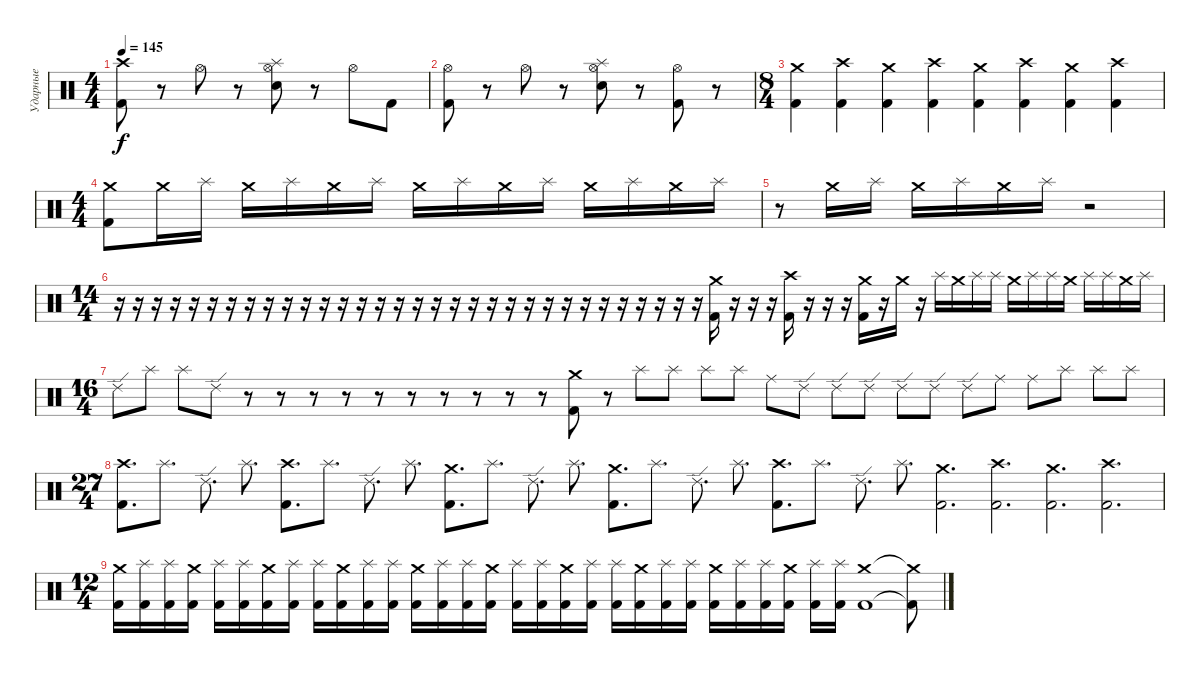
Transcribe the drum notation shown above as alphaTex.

\track ("Ударные" "Ударные") {instrument percussion}
\staff {score}
\articulation defaults
\ts (4 4)
\tempo 145
\clef neutral
\ks c
("Crash high (hit)" "Kick (hit) 2").8{dy f} r.8 "Hi-Hat (open)".8 r.8 ("Splash (hit)" "Hi-Hat (open)" "Snare (hit) 2").8 r.8 "Hi-Hat (open)".8 "Kick (hit) 2".8 |
("Hi-Hat (open)" "Kick (hit) 2").8 r.8 "Hi-Hat (open)".8 r.8 ("Splash (hit)" "Hi-Hat (open)" "Snare (hit) 2").8 r.8 ("Hi-Hat (open)" "Kick (hit) 2").8 r.8 |
\ts (8 4)
("Crash medium (hit)" "Kick (hit) 2").4 ("Crash high (hit)" "Kick (hit) 2").4 ("Crash medium (hit)" "Kick (hit) 2").4 ("Crash high (hit)" "Kick (hit) 2").4 ("Crash medium (hit)" "Kick (hit) 2").4 ("Crash high (hit)" "Kick (hit) 2").4 ("Crash medium (hit)" "Kick (hit) 2").4 ("Crash high (hit)" "Kick (hit) 2").4 |
\ts (4 4)
("Crash medium (hit)" "Kick (hit) 2").8 "Crash medium (hit)".16 "Splash (hit)".16 "Crash medium (hit)".16 "Splash (hit)".16 "Crash medium (hit)".16 "Splash (hit)".16 "Crash medium (hit)".16 "Splash (hit)".16 "Crash medium (hit)".16 "Splash (hit)".16 "Crash medium (hit)".16 "Splash (hit)".16 "Crash medium (hit)".16 "Splash (hit)".16 |
r.8 "Crash medium (hit)".16 "Splash (hit)".16 "Crash medium (hit)".16 "Splash (hit)".16 "Crash medium (hit)".16 "Splash (hit)".16 r.2 |
\ts (14 4)
r.16 r.16 r.16 r.16 r.16 r.16 r.16 r.16 r.16 r.16 r.16 r.16 r.16 r.16 r.16 r.16 r.16 r.16 r.16 r.16 r.16 r.16 r.16 r.16 r.16 r.16 r.16 r.16 r.16 r.16 r.16 r.16 ("Crash medium (hit)" "Kick (hit) 2").16 r.16 r.16 r.16 ("Crash high (hit)" "Kick (hit) 2").16 r.16 r.16 r.16 ("Crash medium (hit)" "Kick (hit) 2").16 r.16 "Crash medium (hit)".16 r.16 "Splash (hit)".16 "Crash medium (hit)".16 "Splash (hit)".16 "Splash (hit)".16 "Crash medium (hit)".16 "Splash (hit)".16 "Splash (hit)".16 "Crash medium (hit)".16 "Splash (hit)".16 "Splash (hit)".16 "Crash medium (hit)".16 "Splash (hit)".16 |
\ts (16 4)
"Ride (edge) 2".8 "Splash (hit)".8 "Splash (hit)".8 "Ride (edge) 2".8 r.8 r.8 r.8 r.8 r.8 r.8 r.8 r.8 r.8 r.8 ("Crash medium (hit)" "Kick (hit) 2").8 r.8 "Splash (hit)".8 "Splash (hit)".8 "Splash (hit)".8 "Splash (hit)".8 "Ride (middle)".8 "Ride (edge) 2".8 "Ride (edge) 2".8 "Ride (edge) 2".8 "Ride (edge) 2".8 "Ride (edge) 2".8 "Ride (edge) 2".8 "Ride (middle)".8 "Ride (middle)".8 "Splash (hit)".8 "Splash (hit)".8 "Splash (hit)".8 |
\ts (27 4)
("Crash high (hit)" "Kick (hit) 2").8{d} "Splash (hit)".8{d} "Ride (edge) 2".8{d} "Splash (hit)".8{d} ("Crash high (hit)" "Kick (hit) 2").8{d} "Splash (hit)".8{d} "Ride (edge) 2".8{d} "Splash (hit)".8{d} ("Crash medium (hit)" "Kick (hit) 2").8{d} "Splash (hit)".8{d} "Ride (edge) 2".8{d} "Splash (hit)".8{d} ("Crash medium (hit)" "Kick (hit) 2").8{d} "Splash (hit)".8{d} "Ride (edge) 2".8{d} "Splash (hit)".8{d} ("Crash high (hit)" "Kick (hit) 2").8{d} "Splash (hit)".8{d} "Ride (edge) 2".8{d} "Splash (hit)".8{d} ("Crash medium (hit)" "Kick (hit) 2").2{d} ("Crash high (hit)" "Kick (hit) 2").2{d} ("Crash medium (hit)" "Kick (hit) 2").2{d} ("Crash high (hit)" "Kick (hit) 2").2{d} |
\ts (12 4)
("Crash medium (hit)" "Kick (hit) 2").16 ("Splash (hit)" "Kick (hit) 2").16 ("Splash (hit)" "Kick (hit) 2").16 ("Crash medium (hit)" "Kick (hit) 2").16 ("Splash (hit)" "Kick (hit) 2").16 ("Splash (hit)" "Kick (hit) 2").16 ("Crash medium (hit)" "Kick (hit) 2").16 ("Splash (hit)" "Kick (hit) 2").16 ("Splash (hit)" "Kick (hit) 2").16 ("Crash medium (hit)" "Kick (hit) 2").16 ("Splash (hit)" "Kick (hit) 2").16 ("Splash (hit)" "Kick (hit) 2").16 ("Crash medium (hit)" "Kick (hit) 2").16 ("Splash (hit)" "Kick (hit) 2").16 ("Splash (hit)" "Kick (hit) 2").16 ("Crash medium (hit)" "Kick (hit) 2").16 ("Splash (hit)" "Kick (hit) 2").16 ("Splash (hit)" "Kick (hit) 2").16 ("Crash medium (hit)" "Kick (hit) 2").16 ("Splash (hit)" "Kick (hit) 2").16 ("Splash (hit)" "Kick (hit) 2").16 ("Crash medium (hit)" "Kick (hit) 2").16 ("Splash (hit)" "Kick (hit) 2").16 ("Splash (hit)" "Kick (hit) 2").16 ("Crash medium (hit)" "Kick (hit) 2").16 ("Splash (hit)" "Kick (hit) 2").16 ("Splash (hit)" "Kick (hit) 2").16 ("Crash medium (hit)" "Kick (hit) 2").16 ("Splash (hit)" "Kick (hit) 2").16 ("Splash (hit)" "Kick (hit) 2").16 ("Crash medium (hit)" "Kick (hit) 2").1 ("Crash medium (hit)"{t} "Kick (hit) 2"{t}).8
